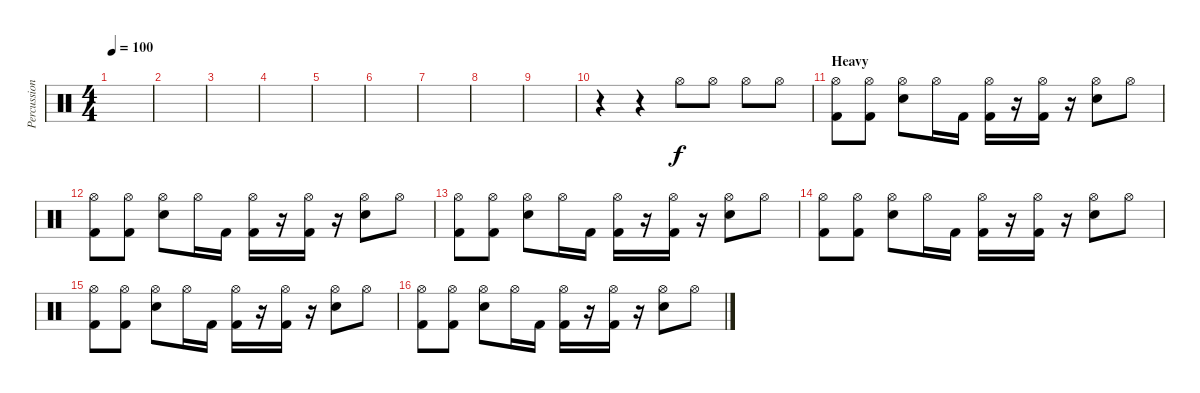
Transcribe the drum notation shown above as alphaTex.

\track ("Percussion" "Percussion") {instrument percussion}
\staff {score}
\articulation defaults
\ts (4 4)
\tempo 100
\clef neutral
\ks c
|
|
|
|
|
|
|
|
|
r.4 r.4 "Hi-Hat (open)".8 "Hi-Hat (open)".8 "Hi-Hat (open)".8 "Hi-Hat (open)".8 |
\section ("" "Heavy")
("Hi-Hat (open)" "Kick (hit) 2").8 ("Hi-Hat (open)" "Kick (hit) 2").8 ("Hi-Hat (open)" "Snare (hit) 2").8 "Hi-Hat (open)".16 "Kick (hit) 2".16 ("Hi-Hat (open)" "Kick (hit) 2").16 r.16 ("Hi-Hat (open)" "Kick (hit) 2").16 r.16 ("Hi-Hat (open)" "Snare (hit) 2").8 "Hi-Hat (open)".8 |
("Hi-Hat (open)" "Kick (hit) 2").8 ("Hi-Hat (open)" "Kick (hit) 2").8 ("Hi-Hat (open)" "Snare (hit) 2").8 "Hi-Hat (open)".16 "Kick (hit) 2".16 ("Hi-Hat (open)" "Kick (hit) 2").16 r.16 ("Hi-Hat (open)" "Kick (hit) 2").16 r.16 ("Hi-Hat (open)" "Snare (hit) 2").8 "Hi-Hat (open)".8 |
("Hi-Hat (open)" "Kick (hit) 2").8 ("Hi-Hat (open)" "Kick (hit) 2").8 ("Hi-Hat (open)" "Snare (hit) 2").8 "Hi-Hat (open)".16 "Kick (hit) 2".16 ("Hi-Hat (open)" "Kick (hit) 2").16 r.16 ("Hi-Hat (open)" "Kick (hit) 2").16 r.16 ("Hi-Hat (open)" "Snare (hit) 2").8 "Hi-Hat (open)".8 |
("Hi-Hat (open)" "Kick (hit) 2").8 ("Hi-Hat (open)" "Kick (hit) 2").8 ("Hi-Hat (open)" "Snare (hit) 2").8 "Hi-Hat (open)".16 "Kick (hit) 2".16 ("Hi-Hat (open)" "Kick (hit) 2").16 r.16 ("Hi-Hat (open)" "Kick (hit) 2").16 r.16 ("Hi-Hat (open)" "Snare (hit) 2").8 "Hi-Hat (open)".8 |
("Hi-Hat (open)" "Kick (hit) 2").8 ("Hi-Hat (open)" "Kick (hit) 2").8 ("Hi-Hat (open)" "Snare (hit) 2").8 "Hi-Hat (open)".16 "Kick (hit) 2".16 ("Hi-Hat (open)" "Kick (hit) 2").16 r.16 ("Hi-Hat (open)" "Kick (hit) 2").16 r.16 ("Hi-Hat (open)" "Snare (hit) 2").8 "Hi-Hat (open)".8 |
("Hi-Hat (open)" "Kick (hit) 2").8 ("Hi-Hat (open)" "Kick (hit) 2").8 ("Hi-Hat (open)" "Snare (hit) 2").8 "Hi-Hat (open)".16 "Kick (hit) 2".16 ("Hi-Hat (open)" "Kick (hit) 2").16 r.16 ("Hi-Hat (open)" "Kick (hit) 2").16 r.16 ("Hi-Hat (open)" "Snare (hit) 2").8 "Hi-Hat (open)".8
